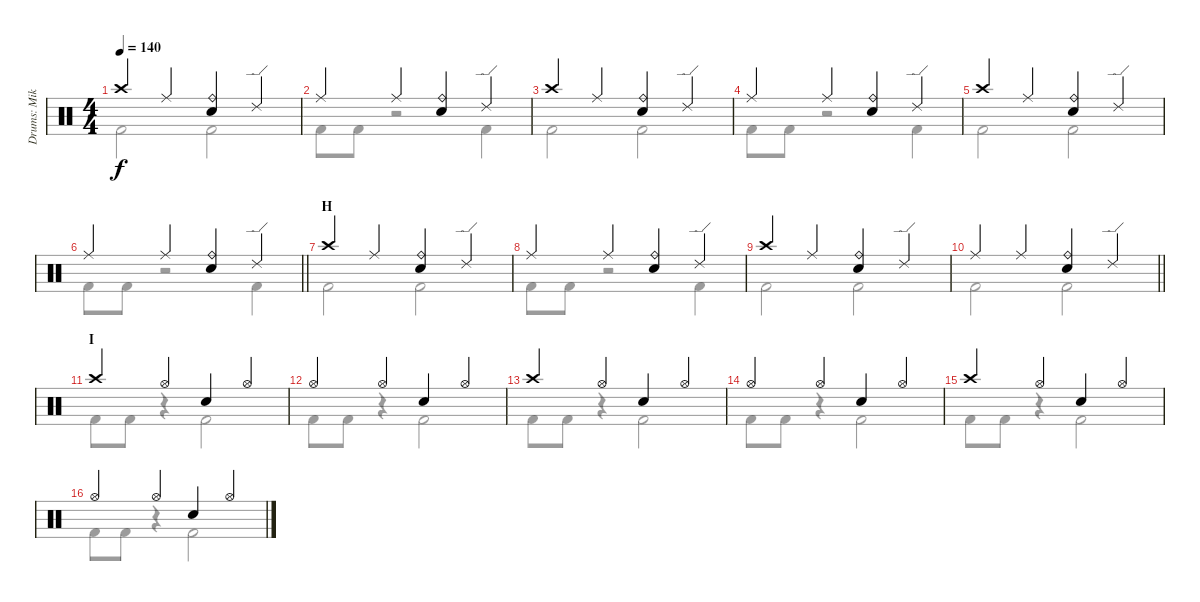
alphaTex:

\track ("Drums: Mike" "Drums: Mik") {instrument percussion}
\staff {score}
\articulation defaults
\voice
\ts (4 4)
\tempo 140
\clef neutral
\ks c "Crash high (hit)".4{dy f} "Ride (middle)".4
("Ride (bell)" "Snare (hit) 2").4 "Ride (edge) 2".4 |
"Ride (middle)".4 "Ride (middle)".4 ("Ride (bell)" "Snare (hit) 2").4 "Ride (edge) 2".4 |
"Crash high (hit)".4 "Ride (middle)".4 ("Ride (bell)" "Snare (hit) 2").4 "Ride (edge) 2".4 |
"Ride (middle)".4 "Ride (middle)".4 ("Ride (bell)" "Snare (hit) 2").4 "Ride (edge) 2".4 |
"Crash high (hit)".4 "Ride (middle)".4 ("Ride (bell)" "Snare (hit) 2").4 "Ride (edge) 2".4 |
\barLineRight lightlight "Ride (middle)".4 "Ride (middle)".4
("Ride (bell)" "Snare (hit) 2").4 "Ride (edge) 2".4 |
\section ("" "H")
"Crash high (hit)".4 "Ride (middle)".4 ("Ride (bell)" "Snare (hit) 2").4 "Ride (edge) 2".4 |
"Ride (middle)".4 "Ride (middle)".4 ("Ride (bell)" "Snare (hit) 2").4 "Ride (edge) 2".4 |
"Crash high (hit)".4 "Ride (middle)".4 ("Ride (bell)" "Snare (hit) 2").4 "Ride (edge) 2".4 |
\barLineRight lightlight "Ride (middle)".4 "Ride (middle)".4
("Ride (bell)" "Snare (hit) 2").4 "Ride (edge) 2".4 |
\section ("" "I")
"Crash high (hit)".4 "Hi-Hat (open)".4 "Snare (hit) 2".4 "Hi-Hat (open)".4 |
"Hi-Hat (open)".4 "Hi-Hat (open)".4 "Snare (hit) 2".4 "Hi-Hat (open)".4 |
"Crash high (hit)".4 "Hi-Hat (open)".4 "Snare (hit) 2".4 "Hi-Hat (open)".4 |
"Hi-Hat (open)".4 "Hi-Hat (open)".4 "Snare (hit) 2".4 "Hi-Hat (open)".4 |
"Crash high (hit)".4 "Hi-Hat (open)".4 "Snare (hit) 2".4 "Hi-Hat (open)".4 |
"Hi-Hat (open)".4 "Hi-Hat (open)".4 "Snare (hit) 2".4 "Hi-Hat (open)".4
\voice
\clef neutral
\ottava regular
\simile none
\ks c "Kick (hit) 2".2{dy f} "Kick (hit) 2".2
|
"Kick (hit) 2".8 "Kick (hit) 2".8 r.2 "Kick (hit) 2".4 |
"Kick (hit) 2".2 "Kick (hit) 2".2 |
"Kick (hit) 2".8 "Kick (hit) 2".8 r.2 "Kick (hit) 2".4 |
"Kick (hit) 2".2 "Kick (hit) 2".2 |
\barLineRight lightlight "Kick (hit) 2".8 "Kick (hit) 2".8
r.2 "Kick (hit) 2".4 |
"Kick (hit) 2".2 "Kick (hit) 2".2 |
"Kick (hit) 2".8 "Kick (hit) 2".8 r.2 "Kick (hit) 2".4 |
"Kick (hit) 2".2 "Kick (hit) 2".2 |
\barLineRight lightlight "Kick (hit) 2".2 "Kick (hit) 2".2
|
"Kick (hit) 2".8 "Kick (hit) 2".8 r.4 "Kick (hit) 2".2 |
"Kick (hit) 2".8 "Kick (hit) 2".8 r.4 "Kick (hit) 2".2 |
"Kick (hit) 2".8 "Kick (hit) 2".8 r.4 "Kick (hit) 2".2 |
"Kick (hit) 2".8 "Kick (hit) 2".8 r.4 "Kick (hit) 2".2 |
"Kick (hit) 2".8 "Kick (hit) 2".8 r.4 "Kick (hit) 2".2 |
"Kick (hit) 2".8 "Kick (hit) 2".8 r.4 "Kick (hit) 2".2
